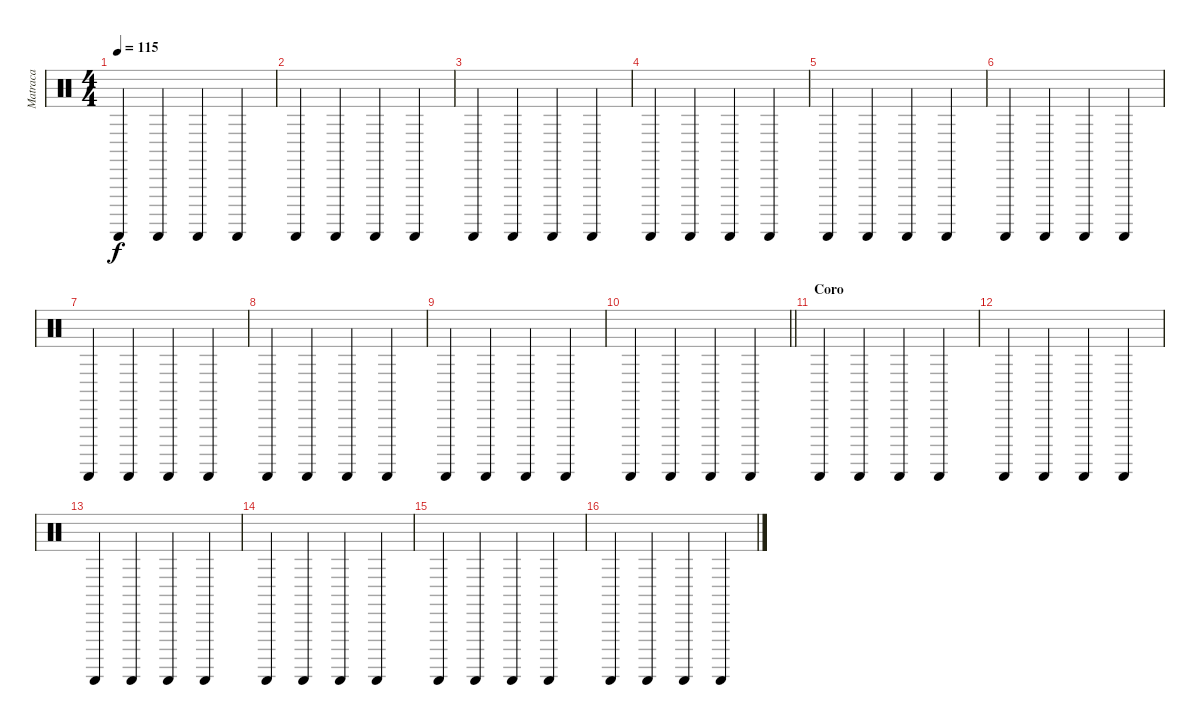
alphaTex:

\track ("Matraca" "Matraca") {instrument percussion}
\staff {score}
\articulation defaults
\ts (4 4)
\tempo 115
\clef neutral
\ks c "Guiro (scrap-return)".4{dy f} "Guiro (scrap-return)".4 "Guiro (scrap-return)".4 "Guiro (scrap-return)".4
|
"Guiro (scrap-return)".4 "Guiro (scrap-return)".4 "Guiro (scrap-return)".4 "Guiro (scrap-return)".4 |
"Guiro (scrap-return)".4 "Guiro (scrap-return)".4 "Guiro (scrap-return)".4 "Guiro (scrap-return)".4 |
"Guiro (scrap-return)".4 "Guiro (scrap-return)".4 "Guiro (scrap-return)".4 "Guiro (scrap-return)".4 |
"Guiro (scrap-return)".4 "Guiro (scrap-return)".4 "Guiro (scrap-return)".4 "Guiro (scrap-return)".4 |
"Guiro (scrap-return)".4 "Guiro (scrap-return)".4 "Guiro (scrap-return)".4 "Guiro (scrap-return)".4 |
"Guiro (scrap-return)".4 "Guiro (scrap-return)".4 "Guiro (scrap-return)".4 "Guiro (scrap-return)".4 |
"Guiro (scrap-return)".4 "Guiro (scrap-return)".4 "Guiro (scrap-return)".4 "Guiro (scrap-return)".4 |
"Guiro (scrap-return)".4 "Guiro (scrap-return)".4 "Guiro (scrap-return)".4 "Guiro (scrap-return)".4 |
\barLineRight lightlight "Guiro (scrap-return)".4 "Guiro (scrap-return)".4 "Guiro (scrap-return)".4 "Guiro (scrap-return)".4
|
\section ("" "Coro")
"Guiro (scrap-return)".4 "Guiro (scrap-return)".4 "Guiro (scrap-return)".4 "Guiro (scrap-return)".4 |
"Guiro (scrap-return)".4 "Guiro (scrap-return)".4 "Guiro (scrap-return)".4 "Guiro (scrap-return)".4 |
"Guiro (scrap-return)".4 "Guiro (scrap-return)".4 "Guiro (scrap-return)".4 "Guiro (scrap-return)".4 |
"Guiro (scrap-return)".4 "Guiro (scrap-return)".4 "Guiro (scrap-return)".4 "Guiro (scrap-return)".4 |
"Guiro (scrap-return)".4 "Guiro (scrap-return)".4 "Guiro (scrap-return)".4 "Guiro (scrap-return)".4 |
"Guiro (scrap-return)".4 "Guiro (scrap-return)".4 "Guiro (scrap-return)".4 "Guiro (scrap-return)".4
